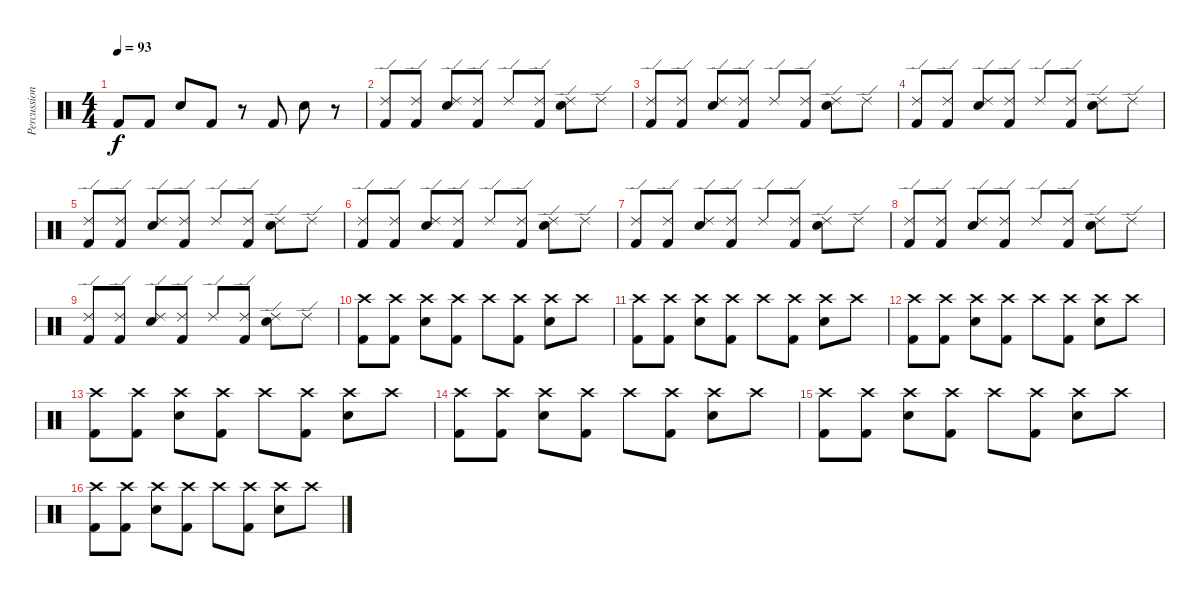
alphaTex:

\track ("Percussion" "Percussion") {instrument percussion}
\staff {score}
\articulation defaults
\ts (4 4)
\tempo 93
\clef neutral
\ks c "Kick (hit) 2".8{dy f} "Kick (hit) 2".8 "Electric Snare (hit)".8 "Kick (hit) 2".8
r.8 "Kick (hit) 2".8 "Electric Snare (hit)".8 r.8 |
("Ride (edge) 2" "Kick (hit) 2").8 ("Ride (edge) 2" "Kick (hit) 2").8 ("Ride (edge) 2" "Electric Snare (hit)").8 ("Ride (edge) 2" "Kick (hit) 2").8 "Ride (edge) 2".8 ("Ride (edge) 2" "Kick (hit) 2").8 ("Ride (edge) 2" "Electric Snare (hit)").8 "Ride (edge) 2".8 |
("Ride (edge) 2" "Kick (hit) 2").8 ("Ride (edge) 2" "Kick (hit) 2").8 ("Ride (edge) 2" "Electric Snare (hit)").8 ("Ride (edge) 2" "Kick (hit) 2").8 "Ride (edge) 2".8 ("Ride (edge) 2" "Kick (hit) 2").8 ("Ride (edge) 2" "Electric Snare (hit)").8 "Ride (edge) 2".8 |
("Ride (edge) 2" "Kick (hit) 2").8 ("Ride (edge) 2" "Kick (hit) 2").8 ("Ride (edge) 2" "Electric Snare (hit)").8 ("Ride (edge) 2" "Kick (hit) 2").8 "Ride (edge) 2".8 ("Ride (edge) 2" "Kick (hit) 2").8 ("Ride (edge) 2" "Electric Snare (hit)").8 "Ride (edge) 2".8 |
("Ride (edge) 2" "Kick (hit) 2").8 ("Ride (edge) 2" "Kick (hit) 2").8 ("Ride (edge) 2" "Electric Snare (hit)").8 ("Ride (edge) 2" "Kick (hit) 2").8 "Ride (edge) 2".8 ("Ride (edge) 2" "Kick (hit) 2").8 ("Ride (edge) 2" "Electric Snare (hit)").8 "Ride (edge) 2".8 |
("Ride (edge) 2" "Kick (hit) 2").8 ("Ride (edge) 2" "Kick (hit) 2").8 ("Ride (edge) 2" "Electric Snare (hit)").8 ("Ride (edge) 2" "Kick (hit) 2").8 "Ride (edge) 2".8 ("Ride (edge) 2" "Kick (hit) 2").8 ("Ride (edge) 2" "Electric Snare (hit)").8 "Ride (edge) 2".8 |
("Ride (edge) 2" "Kick (hit) 2").8 ("Ride (edge) 2" "Kick (hit) 2").8 ("Ride (edge) 2" "Electric Snare (hit)").8 ("Ride (edge) 2" "Kick (hit) 2").8 "Ride (edge) 2".8 ("Ride (edge) 2" "Kick (hit) 2").8 ("Ride (edge) 2" "Electric Snare (hit)").8 "Ride (edge) 2".8 |
("Ride (edge) 2" "Kick (hit) 2").8 ("Ride (edge) 2" "Kick (hit) 2").8 ("Ride (edge) 2" "Electric Snare (hit)").8 ("Ride (edge) 2" "Kick (hit) 2").8 "Ride (edge) 2".8 ("Ride (edge) 2" "Kick (hit) 2").8 ("Ride (edge) 2" "Electric Snare (hit)").8 "Ride (edge) 2".8 |
("Ride (edge) 2" "Kick (hit) 2").8 ("Ride (edge) 2" "Kick (hit) 2").8 ("Ride (edge) 2" "Electric Snare (hit)").8 ("Ride (edge) 2" "Kick (hit) 2").8 "Ride (edge) 2".8 ("Ride (edge) 2" "Kick (hit) 2").8 ("Ride (edge) 2" "Electric Snare (hit)").8 "Ride (edge) 2".8 |
("Crash high (hit)" "Kick (hit) 2").8 ("Crash high (hit)" "Kick (hit) 2").8 ("Crash high (hit)" "Electric Snare (hit)").8 ("Crash high (hit)" "Kick (hit) 2").8 "Crash high (hit)".8 ("Crash high (hit)" "Kick (hit) 2").8 ("Crash high (hit)" "Electric Snare (hit)").8 "Crash high (hit)".8 |
("Crash high (hit)" "Kick (hit) 2").8 ("Crash high (hit)" "Kick (hit) 2").8 ("Crash high (hit)" "Electric Snare (hit)").8 ("Crash high (hit)" "Kick (hit) 2").8 "Crash high (hit)".8 ("Crash high (hit)" "Kick (hit) 2").8 ("Crash high (hit)" "Electric Snare (hit)").8 "Crash high (hit)".8 |
("Crash high (hit)" "Kick (hit) 2").8 ("Crash high (hit)" "Kick (hit) 2").8 ("Crash high (hit)" "Electric Snare (hit)").8 ("Crash high (hit)" "Kick (hit) 2").8 "Crash high (hit)".8 ("Crash high (hit)" "Kick (hit) 2").8 ("Crash high (hit)" "Electric Snare (hit)").8 "Crash high (hit)".8 |
("Crash high (hit)" "Kick (hit) 2").8 ("Crash high (hit)" "Kick (hit) 2").8 ("Crash high (hit)" "Electric Snare (hit)").8 ("Crash high (hit)" "Kick (hit) 2").8 "Crash high (hit)".8 ("Crash high (hit)" "Kick (hit) 2").8 ("Crash high (hit)" "Electric Snare (hit)").8 "Crash high (hit)".8 |
("Crash high (hit)" "Kick (hit) 2").8 ("Crash high (hit)" "Kick (hit) 2").8 ("Crash high (hit)" "Electric Snare (hit)").8 ("Crash high (hit)" "Kick (hit) 2").8 "Crash high (hit)".8 ("Crash high (hit)" "Kick (hit) 2").8 ("Crash high (hit)" "Electric Snare (hit)").8 "Crash high (hit)".8 |
("Crash high (hit)" "Kick (hit) 2").8 ("Crash high (hit)" "Kick (hit) 2").8 ("Crash high (hit)" "Electric Snare (hit)").8 ("Crash high (hit)" "Kick (hit) 2").8 "Crash high (hit)".8 ("Crash high (hit)" "Kick (hit) 2").8 ("Crash high (hit)" "Electric Snare (hit)").8 "Crash high (hit)".8 |
("Crash high (hit)" "Kick (hit) 2").8 ("Crash high (hit)" "Kick (hit) 2").8 ("Crash high (hit)" "Electric Snare (hit)").8 ("Crash high (hit)" "Kick (hit) 2").8 "Crash high (hit)".8 ("Crash high (hit)" "Kick (hit) 2").8 ("Crash high (hit)" "Electric Snare (hit)").8 "Crash high (hit)".8
